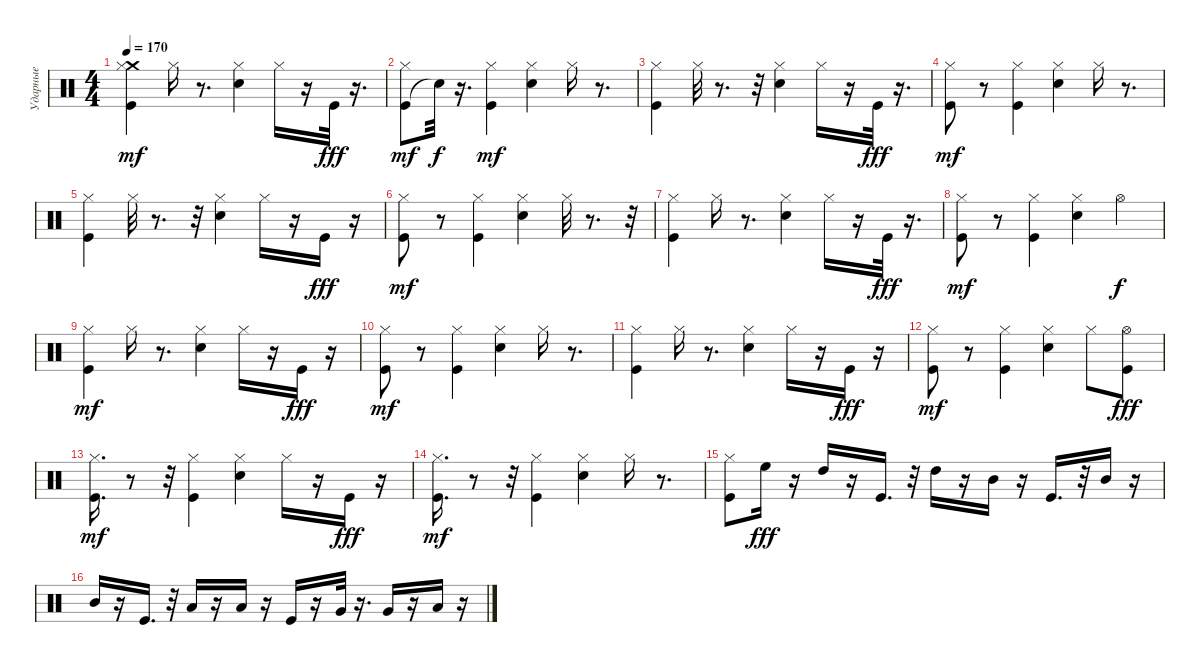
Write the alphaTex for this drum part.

\track ("Ударные" "Ударные") {instrument percussion}
\staff {score}
\articulation defaults
\ts (4 4)
\tempo 170
\clef neutral
\ks c
("Kick (hit)" "Crash medium (hit)" "Hi-Hat (closed)").4{dy mf} "Hi-Hat (closed)".16 r.8{d} ("Snare (hit) 2" "Hi-Hat (closed)").4 "Hi-Hat (closed)".16 r.16 "Kick (hit)".32{dy fff} r.16{d} |
("Kick (hit)" "Hi-Hat (closed)").8{dy mf} "Snare (hit)"{t}.32{dy f} r.16{d} ("Kick (hit)" "Hi-Hat (closed)").4{dy mf} ("Snare (hit) 2" "Hi-Hat (closed)").4 "Hi-Hat (closed)".16 r.8{d} |
("Kick (hit)" "Hi-Hat (closed)").4 "Hi-Hat (closed)".32 r.8{d} r.32 ("Snare (hit) 2" "Hi-Hat (closed)").4 "Hi-Hat (closed)".16 r.16 "Kick (hit)".32{dy fff} r.16{d} |
("Kick (hit)" "Hi-Hat (closed)").8{dy mf} r.8 ("Kick (hit)" "Hi-Hat (closed)").4 ("Snare (hit) 2" "Hi-Hat (closed)").4 "Hi-Hat (closed)".16 r.8{d} |
("Kick (hit)" "Hi-Hat (closed)").4 "Hi-Hat (closed)".32 r.8{d} r.32 ("Snare (hit) 2" "Hi-Hat (closed)").4 "Hi-Hat (closed)".16 r.16 "Kick (hit)".16{dy fff} r.16 |
("Kick (hit)" "Hi-Hat (closed)").8{dy mf} r.8 ("Kick (hit)" "Hi-Hat (closed)").4 ("Snare (hit) 2" "Hi-Hat (closed)").4 "Hi-Hat (closed)".32 r.8{d} r.32 |
("Kick (hit)" "Hi-Hat (closed)").4 "Hi-Hat (closed)".16 r.8{d} ("Snare (hit) 2" "Hi-Hat (closed)").4 "Hi-Hat (closed)".16 r.16 "Kick (hit)".32{dy fff} r.16{d} |
("Kick (hit)" "Hi-Hat (closed)").8{dy mf} r.8 ("Kick (hit)" "Hi-Hat (closed)").4 ("Snare (hit) 2" "Hi-Hat (closed)").4 "Hi-Hat (open)".4{dy f} |
("Kick (hit)" "Hi-Hat (closed)").4{dy mf} "Hi-Hat (closed)".16 r.8{d} ("Snare (hit) 2" "Hi-Hat (closed)").4 "Hi-Hat (closed)".16 r.16 "Kick (hit)".16{dy fff} r.16 |
("Kick (hit)" "Hi-Hat (closed)").8{dy mf} r.8 ("Kick (hit)" "Hi-Hat (closed)").4 ("Snare (hit) 2" "Hi-Hat (closed)").4 "Hi-Hat (closed)".16 r.8{d} |
("Kick (hit)" "Hi-Hat (closed)").4 "Hi-Hat (closed)".16 r.8{d} ("Snare (hit) 2" "Hi-Hat (closed)").4 "Hi-Hat (closed)".16 r.16 "Kick (hit)".16{dy fff} r.16 |
("Kick (hit)" "Hi-Hat (closed)").8{dy mf} r.8 ("Kick (hit)" "Hi-Hat (closed)").4 ("Snare (hit) 2" "Hi-Hat (closed)").4 "Hi-Hat (closed)".8 ("Kick (hit)" "Hi-Hat (open)").8{dy fff} |
("Kick (hit)" "Hi-Hat (closed)").16{d dy mf} r.8 r.32 ("Kick (hit)" "Hi-Hat (closed)").4 ("Snare (hit) 2" "Hi-Hat (closed)").4 "Hi-Hat (closed)".16 r.16 "Kick (hit)".16{dy fff} r.16 |
("Kick (hit)" "Hi-Hat (closed)").16{d dy mf} r.8 r.32 ("Kick (hit)" "Hi-Hat (closed)").4 ("Snare (hit) 2" "Hi-Hat (closed)").4 "Hi-Hat (closed)".16 r.8{d} |
("Kick (hit)" "Hi-Hat (closed)").8 "High Floor Tom (hit)".16{dy fff} r.16 "High Tom (hit)".16 r.16 "Kick (hit)".16{d} r.32 "High Tom (hit)".16 r.16 "Mid Tom (hit)".16 r.16 "Kick (hit)".16{d} r.32 "Mid Tom (hit)".16 r.16 |
"Mid Tom (hit)".16 r.16 "Kick (hit)".16{d} r.32 "Low Tom (hit)".16 r.16 "Low Tom (hit)".16 r.16 "Kick (hit)".16 r.16 "Very Low Tom (hit)".32 r.16{d} "Very Low Tom (hit)".16 r.16 "Low Floor Tom (hit)".16 r.16
